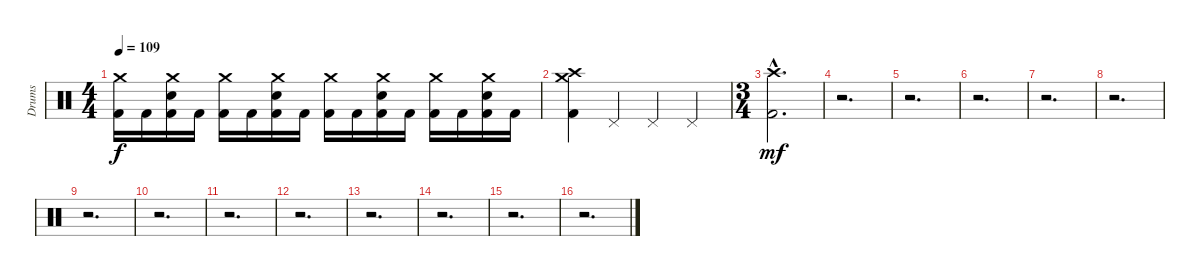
\track ("Drums" "Drums") {instrument percussion}
\staff {score}
\articulation defaults
\ts (4 4)
\tempo 109
\clef neutral
\ks c
("Crash medium (hit)" "Kick (hit) 2").16{dy f} "Kick (hit) 2".16 ("Crash medium (hit)" "Snare (hit) 2" "Kick (hit) 2").16 "Kick (hit) 2".16 ("Crash medium (hit)" "Kick (hit) 2").16 "Kick (hit) 2".16 ("Crash medium (hit)" "Snare (hit) 2" "Kick (hit) 2").16 "Kick (hit) 2".16 ("Crash medium (hit)" "Kick (hit) 2").16 "Kick (hit) 2".16 ("Crash medium (hit)" "Snare (hit) 2" "Kick (hit) 2").16 "Kick (hit) 2".16 ("Crash medium (hit)" "Kick (hit) 2").16 "Kick (hit) 2".16 ("Crash medium (hit)" "Snare (hit) 2" "Kick (hit) 2").16 "Kick (hit) 2".16 |
("Crash high (hit)" "Crash medium (hit)" "Kick (hit) 2").4 "Pedal Hi-Hat (hit)".4 "Pedal Hi-Hat (hit)".4 "Pedal Hi-Hat (hit)".4 |
\ts (3 4)
("Crash high (hit)"{hac} "Kick (hit) 2"{hac}).2{d dy mf} |
r.2{d} |
r.2{d} |
r.2{d} |
r.2{d} |
r.2{d} |
r.2{d} |
r.2{d} |
r.2{d} |
r.2{d} |
r.2{d} |
r.2{d} |
r.2{d} |
r.2{d}
